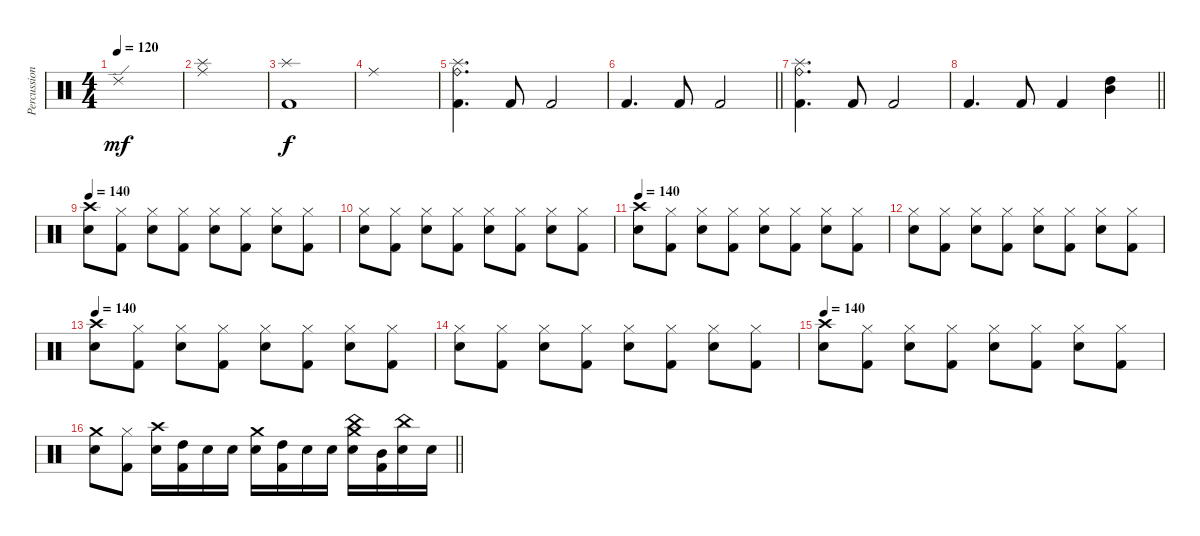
\track ("Percussion" "Percussion") {instrument percussion}
\staff {score}
\articulation defaults
\ts (4 4)
\tempo 120
\clef neutral
\ks c "Ride (edge) 2".1{dy mf}
|
("Splash (hit)" "Ride (middle)").1 |
("Splash (hit)" "Kick (hit) 2").1{dy f} |
"Ride (middle)".1 |
("Ride (bell)" "Splash (hit)" "Kick (hit) 2").4{d} "Kick (hit) 2".8 "Kick (hit) 2".2 |
\barLineRight lightlight "Kick (hit) 2".4{d} "Kick (hit) 2".8 "Kick (hit) 2".2
|
("Ride (bell)" "Splash (hit)" "Kick (hit) 2").4{d} "Kick (hit) 2".8 "Kick (hit) 2".2 |
\barLineRight lightlight "Kick (hit) 2".4{d} "Kick (hit) 2".8 "Kick (hit) 2".4
("Mid Tom (hit)" "High Tom (hit)").4 |
\tempo 140
("Crash high (hit)" "Electric Snare (hit)").8 ("Hi-Hat (closed)" "Kick (hit) 2").8 ("Hi-Hat (closed)" "Electric Snare (hit)").8 ("Hi-Hat (closed)" "Kick (hit) 2").8 ("Hi-Hat (closed)" "Electric Snare (hit)").8 ("Hi-Hat (closed)" "Kick (hit) 2").8 ("Hi-Hat (closed)" "Electric Snare (hit)").8 ("Hi-Hat (closed)" "Kick (hit) 2").8 |
("Hi-Hat (closed)" "Electric Snare (hit)").8 ("Hi-Hat (closed)" "Kick (hit) 2").8 ("Hi-Hat (closed)" "Electric Snare (hit)").8 ("Hi-Hat (closed)" "Kick (hit) 2").8 ("Hi-Hat (closed)" "Electric Snare (hit)").8 ("Hi-Hat (closed)" "Kick (hit) 2").8 ("Hi-Hat (closed)" "Electric Snare (hit)").8 ("Hi-Hat (closed)" "Kick (hit) 2").8 |
\tempo 140
("Crash high (hit)" "Electric Snare (hit)").8 ("Hi-Hat (closed)" "Kick (hit) 2").8 ("Hi-Hat (closed)" "Electric Snare (hit)").8 ("Hi-Hat (closed)" "Kick (hit) 2").8 ("Hi-Hat (closed)" "Electric Snare (hit)").8 ("Hi-Hat (closed)" "Kick (hit) 2").8 ("Hi-Hat (closed)" "Electric Snare (hit)").8 ("Hi-Hat (closed)" "Kick (hit) 2").8 |
("Hi-Hat (closed)" "Electric Snare (hit)").8 ("Hi-Hat (closed)" "Kick (hit) 2").8 ("Hi-Hat (closed)" "Electric Snare (hit)").8 ("Hi-Hat (closed)" "Kick (hit) 2").8 ("Hi-Hat (closed)" "Electric Snare (hit)").8 ("Hi-Hat (closed)" "Kick (hit) 2").8 ("Hi-Hat (closed)" "Electric Snare (hit)").8 ("Hi-Hat (closed)" "Kick (hit) 2").8 |
\tempo 140
("Crash high (hit)" "Electric Snare (hit)").8 ("Hi-Hat (closed)" "Kick (hit) 2").8 ("Hi-Hat (closed)" "Electric Snare (hit)").8 ("Hi-Hat (closed)" "Kick (hit) 2").8 ("Hi-Hat (closed)" "Electric Snare (hit)").8 ("Hi-Hat (closed)" "Kick (hit) 2").8 ("Hi-Hat (closed)" "Electric Snare (hit)").8 ("Hi-Hat (closed)" "Kick (hit) 2").8 |
("Hi-Hat (closed)" "Electric Snare (hit)").8 ("Hi-Hat (closed)" "Kick (hit) 2").8 ("Hi-Hat (closed)" "Electric Snare (hit)").8 ("Hi-Hat (closed)" "Kick (hit) 2").8 ("Hi-Hat (closed)" "Electric Snare (hit)").8 ("Hi-Hat (closed)" "Kick (hit) 2").8 ("Hi-Hat (closed)" "Electric Snare (hit)").8 ("Hi-Hat (closed)" "Kick (hit) 2").8 |
\tempo 140
("Crash high (hit)" "Electric Snare (hit)").8 ("Hi-Hat (closed)" "Kick (hit) 2").8 ("Hi-Hat (closed)" "Electric Snare (hit)").8 ("Hi-Hat (closed)" "Kick (hit) 2").8 ("Hi-Hat (closed)" "Electric Snare (hit)").8 ("Hi-Hat (closed)" "Kick (hit) 2").8 ("Hi-Hat (closed)" "Electric Snare (hit)").8 ("Hi-Hat (closed)" "Kick (hit) 2").8 |
\barLineRight lightlight
("Crash medium (hit)" "Electric Snare (hit)").8 ("Hi-Hat (closed)" "Kick (hit) 2").8 ("Crash high (hit)" "Electric Snare (hit)").16 ("High Tom (hit)" "Kick (hit) 2").16 "Electric Snare (hit)".16 "Electric Snare (hit)".16 ("Crash medium (hit)" "Electric Snare (hit)").16 ("High Tom (hit)" "Kick (hit) 2").16 "Electric Snare (hit)".16 "Electric Snare (hit)".16 ("Crash medium (hit)" "China (hit)" "Electric Snare (hit)").16 ("Mid Tom (hit)" "Kick (hit) 2").16 ("China (hit)" "Electric Snare (hit)").16 "Electric Snare (hit)".16
